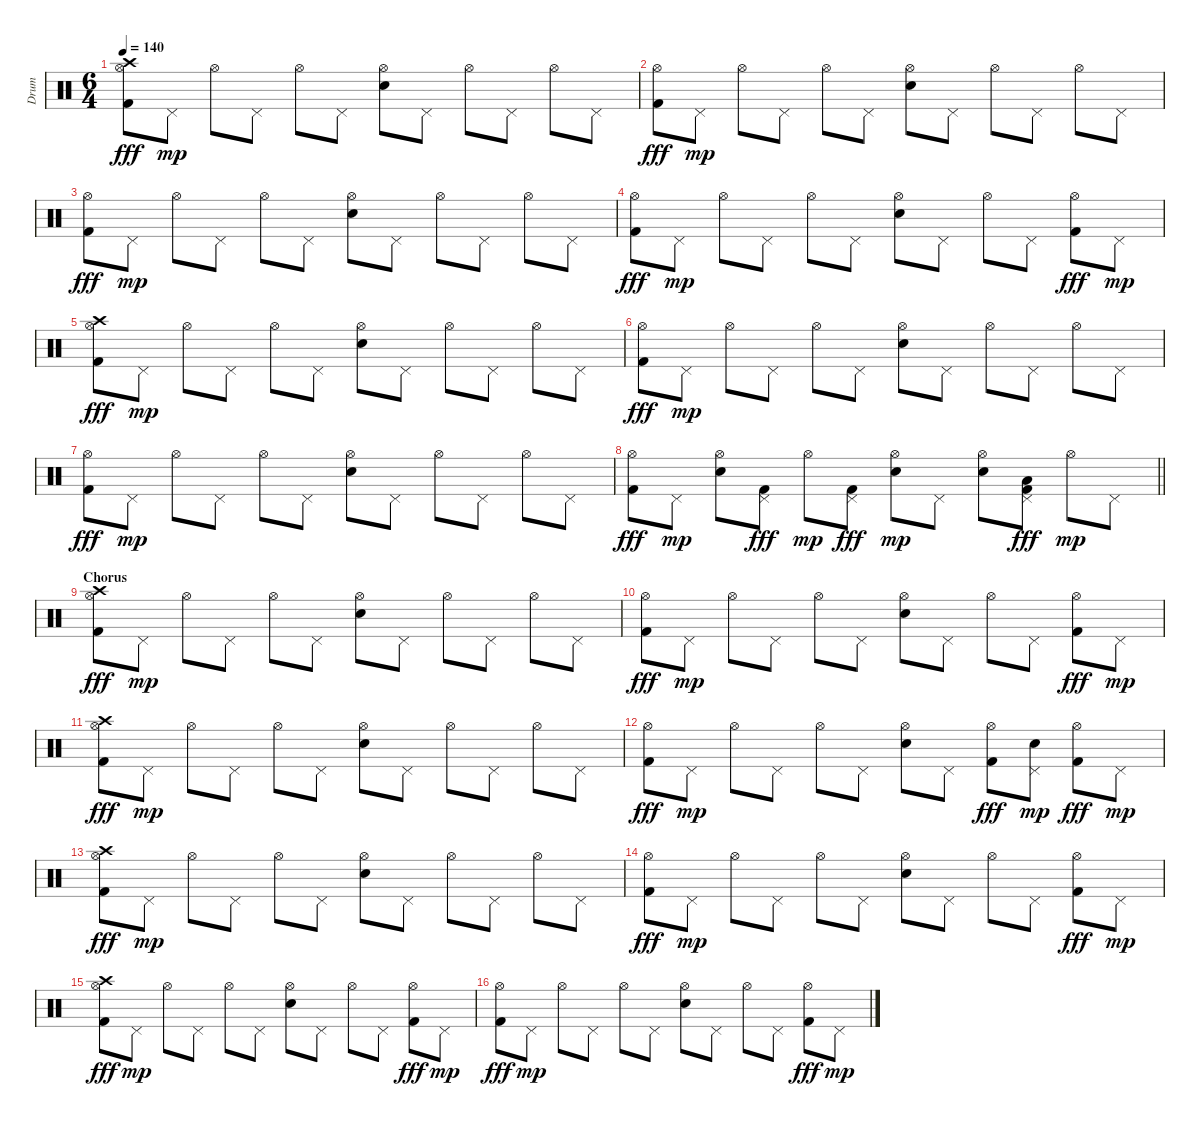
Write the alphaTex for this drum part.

\track ("Drum" "Drum") {instrument percussion}
\staff {score}
\articulation defaults
\ts (6 4)
\tempo 140
\clef neutral
\ks c
("Hi-Hat (open)" "Kick (hit) 2" "Crash high (hit)").8{dy fff} "Pedal Hi-Hat (hit)".8{dy mp} "Hi-Hat (open)".8 "Pedal Hi-Hat (hit)".8 "Hi-Hat (open)".8 "Pedal Hi-Hat (hit)".8 ("Hi-Hat (open)" "Electric Snare (hit)").8 "Pedal Hi-Hat (hit)".8 "Hi-Hat (open)".8 "Pedal Hi-Hat (hit)".8 "Hi-Hat (open)".8 "Pedal Hi-Hat (hit)".8 |
("Hi-Hat (open)" "Kick (hit) 2").8{dy fff} "Pedal Hi-Hat (hit)".8{dy mp} "Hi-Hat (open)".8 "Pedal Hi-Hat (hit)".8 "Hi-Hat (open)".8 "Pedal Hi-Hat (hit)".8 ("Hi-Hat (open)" "Electric Snare (hit)").8 "Pedal Hi-Hat (hit)".8 "Hi-Hat (open)".8 "Pedal Hi-Hat (hit)".8 "Hi-Hat (open)".8 "Pedal Hi-Hat (hit)".8 |
("Hi-Hat (open)" "Kick (hit) 2").8{dy fff} "Pedal Hi-Hat (hit)".8{dy mp} "Hi-Hat (open)".8 "Pedal Hi-Hat (hit)".8 "Hi-Hat (open)".8 "Pedal Hi-Hat (hit)".8 ("Hi-Hat (open)" "Electric Snare (hit)").8 "Pedal Hi-Hat (hit)".8 "Hi-Hat (open)".8 "Pedal Hi-Hat (hit)".8 "Hi-Hat (open)".8 "Pedal Hi-Hat (hit)".8 |
("Hi-Hat (open)" "Kick (hit) 2").8{dy fff} "Pedal Hi-Hat (hit)".8{dy mp} "Hi-Hat (open)".8 "Pedal Hi-Hat (hit)".8 "Hi-Hat (open)".8 "Pedal Hi-Hat (hit)".8 ("Hi-Hat (open)" "Electric Snare (hit)").8 "Pedal Hi-Hat (hit)".8 "Hi-Hat (open)".8 "Pedal Hi-Hat (hit)".8 ("Hi-Hat (open)" "Kick (hit) 2").8{dy fff} "Pedal Hi-Hat (hit)".8{dy mp} |
("Hi-Hat (open)" "Kick (hit) 2" "Crash high (hit)").8{dy fff} "Pedal Hi-Hat (hit)".8{dy mp} "Hi-Hat (open)".8 "Pedal Hi-Hat (hit)".8 "Hi-Hat (open)".8 "Pedal Hi-Hat (hit)".8 ("Hi-Hat (open)" "Electric Snare (hit)").8 "Pedal Hi-Hat (hit)".8 "Hi-Hat (open)".8 "Pedal Hi-Hat (hit)".8 "Hi-Hat (open)".8 "Pedal Hi-Hat (hit)".8 |
("Hi-Hat (open)" "Kick (hit) 2").8{dy fff} "Pedal Hi-Hat (hit)".8{dy mp} "Hi-Hat (open)".8 "Pedal Hi-Hat (hit)".8 "Hi-Hat (open)".8 "Pedal Hi-Hat (hit)".8 ("Hi-Hat (open)" "Electric Snare (hit)").8 "Pedal Hi-Hat (hit)".8 "Hi-Hat (open)".8 "Pedal Hi-Hat (hit)".8 "Hi-Hat (open)".8 "Pedal Hi-Hat (hit)".8 |
("Hi-Hat (open)" "Kick (hit) 2").8{dy fff} "Pedal Hi-Hat (hit)".8{dy mp} "Hi-Hat (open)".8 "Pedal Hi-Hat (hit)".8 "Hi-Hat (open)".8 "Pedal Hi-Hat (hit)".8 ("Hi-Hat (open)" "Electric Snare (hit)").8 "Pedal Hi-Hat (hit)".8 "Hi-Hat (open)".8 "Pedal Hi-Hat (hit)".8 "Hi-Hat (open)".8 "Pedal Hi-Hat (hit)".8 |
\barLineRight lightlight
("Hi-Hat (open)" "Kick (hit) 2").8{dy fff} "Pedal Hi-Hat (hit)".8{dy mp} ("Hi-Hat (open)" "Electric Snare (hit)").8 ("Pedal Hi-Hat (hit)" "Kick (hit) 2").8{dy fff} "Hi-Hat (open)".8{dy mp} ("Pedal Hi-Hat (hit)" "Kick (hit) 2").8{dy fff} ("Hi-Hat (open)" "Electric Snare (hit)").8{dy mp} "Pedal Hi-Hat (hit)".8 ("Hi-Hat (open)" "Electric Snare (hit)").8 ("Pedal Hi-Hat (hit)" "Kick (hit) 2" "Low Tom (hit)").8{dy fff} "Hi-Hat (open)".8{dy mp} "Pedal Hi-Hat (hit)".8 |
\section ("" "Chorus")
("Hi-Hat (open)" "Kick (hit) 2" "Crash high (hit)").8{dy fff} "Pedal Hi-Hat (hit)".8{dy mp} "Hi-Hat (open)".8 "Pedal Hi-Hat (hit)".8 "Hi-Hat (open)".8 "Pedal Hi-Hat (hit)".8 ("Hi-Hat (open)" "Electric Snare (hit)").8 "Pedal Hi-Hat (hit)".8 "Hi-Hat (open)".8 "Pedal Hi-Hat (hit)".8 "Hi-Hat (open)".8 "Pedal Hi-Hat (hit)".8 |
("Hi-Hat (open)" "Kick (hit) 2").8{dy fff} "Pedal Hi-Hat (hit)".8{dy mp} "Hi-Hat (open)".8 "Pedal Hi-Hat (hit)".8 "Hi-Hat (open)".8 "Pedal Hi-Hat (hit)".8 ("Hi-Hat (open)" "Electric Snare (hit)").8 "Pedal Hi-Hat (hit)".8 "Hi-Hat (open)".8 "Pedal Hi-Hat (hit)".8 ("Hi-Hat (open)" "Kick (hit) 2").8{dy fff} "Pedal Hi-Hat (hit)".8{dy mp} |
("Hi-Hat (open)" "Kick (hit) 2" "Crash high (hit)").8{dy fff} "Pedal Hi-Hat (hit)".8{dy mp} "Hi-Hat (open)".8 "Pedal Hi-Hat (hit)".8 "Hi-Hat (open)".8 "Pedal Hi-Hat (hit)".8 ("Hi-Hat (open)" "Electric Snare (hit)").8 "Pedal Hi-Hat (hit)".8 "Hi-Hat (open)".8 "Pedal Hi-Hat (hit)".8 "Hi-Hat (open)".8 "Pedal Hi-Hat (hit)".8 |
("Hi-Hat (open)" "Kick (hit) 2").8{dy fff} "Pedal Hi-Hat (hit)".8{dy mp} "Hi-Hat (open)".8 "Pedal Hi-Hat (hit)".8 "Hi-Hat (open)".8 "Pedal Hi-Hat (hit)".8 ("Hi-Hat (open)" "Electric Snare (hit)").8 "Pedal Hi-Hat (hit)".8 ("Hi-Hat (open)" "Kick (hit) 2").8{dy fff} ("Pedal Hi-Hat (hit)" "Electric Snare (hit)").8{dy mp} ("Hi-Hat (open)" "Kick (hit) 2").8{dy fff} "Pedal Hi-Hat (hit)".8{dy mp} |
("Hi-Hat (open)" "Kick (hit) 2" "Crash high (hit)").8{dy fff} "Pedal Hi-Hat (hit)".8{dy mp} "Hi-Hat (open)".8 "Pedal Hi-Hat (hit)".8 "Hi-Hat (open)".8 "Pedal Hi-Hat (hit)".8 ("Hi-Hat (open)" "Electric Snare (hit)").8 "Pedal Hi-Hat (hit)".8 "Hi-Hat (open)".8 "Pedal Hi-Hat (hit)".8 "Hi-Hat (open)".8 "Pedal Hi-Hat (hit)".8 |
("Hi-Hat (open)" "Kick (hit) 2").8{dy fff} "Pedal Hi-Hat (hit)".8{dy mp} "Hi-Hat (open)".8 "Pedal Hi-Hat (hit)".8 "Hi-Hat (open)".8 "Pedal Hi-Hat (hit)".8 ("Hi-Hat (open)" "Electric Snare (hit)").8 "Pedal Hi-Hat (hit)".8 "Hi-Hat (open)".8 "Pedal Hi-Hat (hit)".8 ("Hi-Hat (open)" "Kick (hit) 2").8{dy fff} "Pedal Hi-Hat (hit)".8{dy mp} |
("Hi-Hat (open)" "Kick (hit) 2" "Crash high (hit)").8{dy fff} "Pedal Hi-Hat (hit)".8{dy mp} "Hi-Hat (open)".8 "Pedal Hi-Hat (hit)".8 "Hi-Hat (open)".8 "Pedal Hi-Hat (hit)".8 ("Hi-Hat (open)" "Electric Snare (hit)").8 "Pedal Hi-Hat (hit)".8 "Hi-Hat (open)".8 "Pedal Hi-Hat (hit)".8 ("Hi-Hat (open)" "Kick (hit) 2").8{dy fff} "Pedal Hi-Hat (hit)".8{dy mp} |
("Hi-Hat (open)" "Kick (hit) 2").8{dy fff} "Pedal Hi-Hat (hit)".8{dy mp} "Hi-Hat (open)".8 "Pedal Hi-Hat (hit)".8 "Hi-Hat (open)".8 "Pedal Hi-Hat (hit)".8 ("Hi-Hat (open)" "Electric Snare (hit)").8 "Pedal Hi-Hat (hit)".8 "Hi-Hat (open)".8 "Pedal Hi-Hat (hit)".8 ("Hi-Hat (open)" "Kick (hit) 2").8{dy fff} "Pedal Hi-Hat (hit)".8{dy mp}
